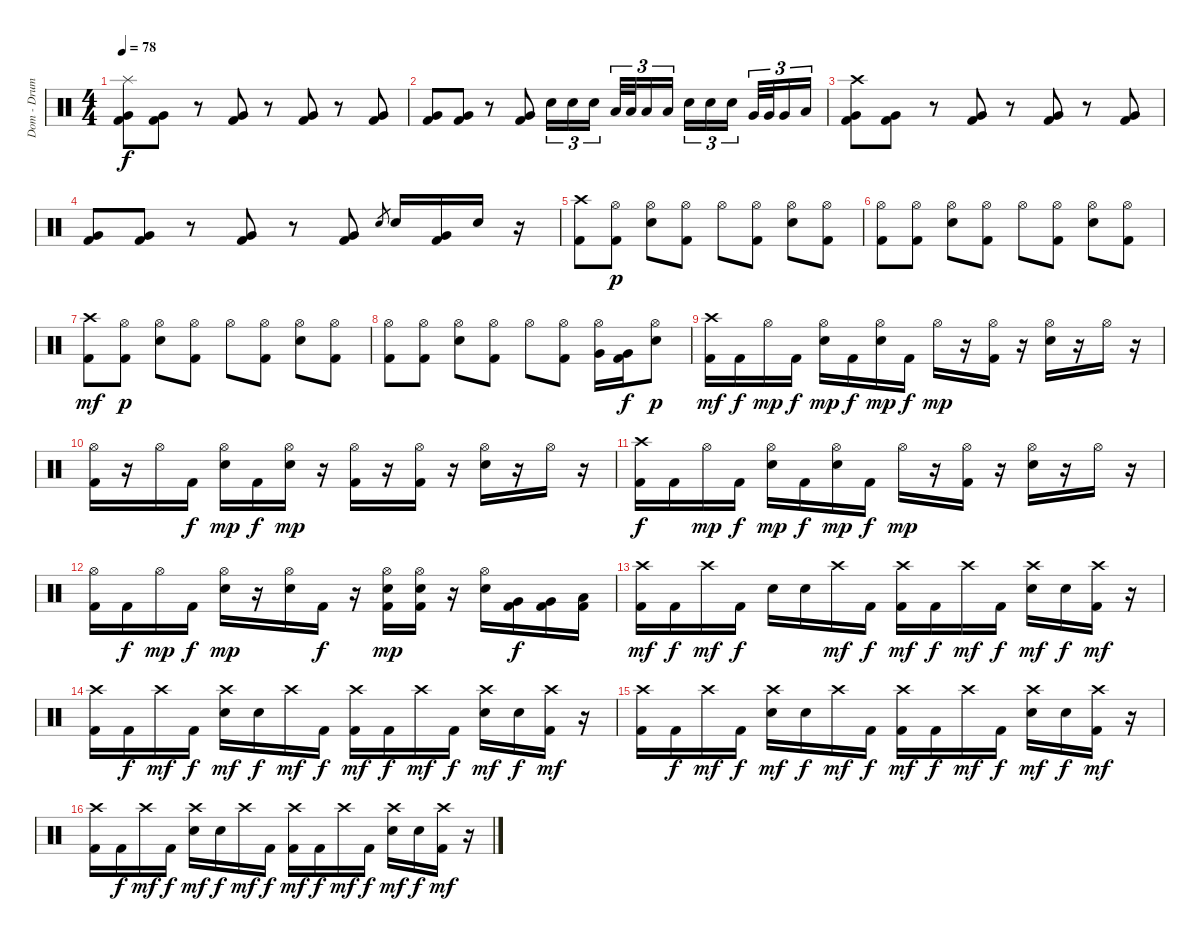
\track ("Dom - Drums" "Dom - Drum") {instrument percussion}
\staff {score}
\articulation defaults
\ts (4 4)
\tempo 78
\clef neutral
\ks c
("Splash (hit)" "Very Low Tom (hit)" "Kick (hit) 2").8{dy f} ("Very Low Tom (hit)" "Kick (hit) 2").8 r.8 ("Very Low Tom (hit)" "Kick (hit) 2").8 r.8 ("Very Low Tom (hit)" "Kick (hit) 2").8 r.8 ("Very Low Tom (hit)" "Kick (hit) 2").8 |
("Very Low Tom (hit)" "Kick (hit) 2").8 ("Very Low Tom (hit)" "Kick (hit) 2").8 r.8 ("Very Low Tom (hit)" "Kick (hit) 2").8 "Electric Snare (hit)".16{tu (3 2)} "Electric Snare (hit)".16{tu (3 2)} "Electric Snare (hit)".16{tu (3 2)} "Low Tom (hit)".32{tu (3 2)} "Low Tom (hit)".32{tu (3 2)} "Low Tom (hit)".16{tu (3 2)} "Low Tom (hit)".16{tu (3 2)} "Electric Snare (hit)".16{tu (3 2)} "Electric Snare (hit)".16{tu (3 2)} "Electric Snare (hit)".16{tu (3 2)} "Very Low Tom (hit)".32{tu (3 2)} "Very Low Tom (hit)".32{tu (3 2)} "Very Low Tom (hit)".16{tu (3 2)} "Low Floor Tom (hit)".16{tu (3 2)} |
("Crash high (hit)" "Very Low Tom (hit)" "Kick (hit) 2").8 ("Very Low Tom (hit)" "Kick (hit) 2").8 r.8 ("Very Low Tom (hit)" "Kick (hit) 2").8 r.8 ("Very Low Tom (hit)" "Kick (hit) 2").8 r.8 ("Very Low Tom (hit)" "Kick (hit) 2").8 |
("Very Low Tom (hit)" "Kick (hit) 2").8 ("Very Low Tom (hit)" "Kick (hit) 2").8 r.8 ("Very Low Tom (hit)" "Kick (hit) 2").8 r.8 ("Very Low Tom (hit)" "Kick (hit) 2").8 "Electric Snare (hit)".8{gr} "Electric Snare (hit)".16 ("Very Low Tom (hit)" "Kick (hit) 2").16 "Electric Snare (hit)".16 r.16 |
("Crash high (hit)" "Kick (hit) 2").8 ("Hi-Hat (open)" "Kick (hit) 2").8{dy p} ("Hi-Hat (open)" "Electric Snare (hit)").8 ("Hi-Hat (open)" "Kick (hit) 2").8 "Hi-Hat (open)".8 ("Hi-Hat (open)" "Kick (hit) 2").8 ("Hi-Hat (open)" "Electric Snare (hit)").8 ("Hi-Hat (open)" "Kick (hit) 2").8 |
("Hi-Hat (open)" "Kick (hit) 2").8 ("Hi-Hat (open)" "Kick (hit) 2").8 ("Hi-Hat (open)" "Electric Snare (hit)").8 ("Hi-Hat (open)" "Kick (hit) 2").8 "Hi-Hat (open)".8 ("Hi-Hat (open)" "Kick (hit) 2").8 ("Hi-Hat (open)" "Electric Snare (hit)").8 ("Hi-Hat (open)" "Kick (hit) 2").8 |
("Crash high (hit)" "Kick (hit) 2").8{dy mf} ("Hi-Hat (open)" "Kick (hit) 2").8{dy p} ("Hi-Hat (open)" "Electric Snare (hit)").8 ("Hi-Hat (open)" "Kick (hit) 2").8 "Hi-Hat (open)".8 ("Hi-Hat (open)" "Kick (hit) 2").8 ("Hi-Hat (open)" "Electric Snare (hit)").8 ("Hi-Hat (open)" "Kick (hit) 2").8 |
("Hi-Hat (open)" "Kick (hit) 2").8 ("Hi-Hat (open)" "Kick (hit) 2").8 ("Hi-Hat (open)" "Electric Snare (hit)").8 ("Hi-Hat (open)" "Kick (hit) 2").8 "Hi-Hat (open)".8 ("Hi-Hat (open)" "Kick (hit) 2").8 ("Hi-Hat (open)" "Very Low Tom (hit)").16 ("Very Low Tom (hit)" "Kick (hit) 2").16{dy f} ("Hi-Hat (open)" "Electric Snare (hit)").8{dy p} |
("Crash high (hit)" "Kick (hit) 2").16{dy mf} "Kick (hit) 2".16{dy f} "Hi-Hat (open)".16{dy mp} "Kick (hit) 2".16{dy f} ("Hi-Hat (open)" "Electric Snare (hit)").16{dy mp} "Kick (hit) 2".16{dy f} ("Hi-Hat (open)" "Electric Snare (hit)").16{dy mp} "Kick (hit) 2".16{dy f} "Hi-Hat (open)".16{dy mp} r.16 ("Hi-Hat (open)" "Kick (hit) 2").16 r.16 ("Hi-Hat (open)" "Electric Snare (hit)").16 r.16 "Hi-Hat (open)".16 r.16 |
("Hi-Hat (open)" "Kick (hit) 2").16 r.16 "Hi-Hat (open)".16 "Kick (hit) 2".16{dy f} ("Hi-Hat (open)" "Electric Snare (hit)").16{dy mp} "Kick (hit) 2".16{dy f} ("Hi-Hat (open)" "Electric Snare (hit)").16{dy mp} r.16 ("Hi-Hat (open)" "Kick (hit) 2").16 r.16 ("Hi-Hat (open)" "Kick (hit) 2").16 r.16 ("Hi-Hat (open)" "Electric Snare (hit)").16 r.16 "Hi-Hat (open)".16 r.16 |
("Crash high (hit)" "Kick (hit) 2").16{dy f} "Kick (hit) 2".16 "Hi-Hat (open)".16{dy mp} "Kick (hit) 2".16{dy f} ("Hi-Hat (open)" "Electric Snare (hit)").16{dy mp} "Kick (hit) 2".16{dy f} ("Hi-Hat (open)" "Electric Snare (hit)").16{dy mp} "Kick (hit) 2".16{dy f} "Hi-Hat (open)".16{dy mp} r.16 ("Hi-Hat (open)" "Kick (hit) 2").16 r.16 ("Hi-Hat (open)" "Electric Snare (hit)").16 r.16 "Hi-Hat (open)".16 r.16 |
("Hi-Hat (open)" "Kick (hit) 2").16 "Kick (hit) 2".16{dy f} "Hi-Hat (open)".16{dy mp} "Kick (hit) 2".16{dy f} ("Hi-Hat (open)" "Electric Snare (hit)").16{dy mp} r.16 ("Hi-Hat (open)" "Electric Snare (hit)").16 "Kick (hit) 2".16{dy f} r.16 ("Hi-Hat (open)" "Electric Snare (hit)" "Kick (hit) 2").16{dy mp} ("Hi-Hat (open)" "Electric Snare (hit)" "Kick (hit) 2").16 r.16 ("Hi-Hat (open)" "Electric Snare (hit)").16 ("Very Low Tom (hit)" "Kick (hit) 2").16{dy f} ("Very Low Tom (hit)" "Kick (hit) 2").16 ("Low Floor Tom (hit)" "Kick (hit) 2").16 |
("Crash high (hit)" "Kick (hit) 2").16{dy mf} "Kick (hit) 2".16{dy f} "Crash high (hit)".16{dy mf} "Kick (hit) 2".16{dy f} "Electric Snare (hit)".16 "Electric Snare (hit)".16 "Crash high (hit)".16{dy mf} "Kick (hit) 2".16{dy f} ("Crash high (hit)" "Kick (hit) 2").16{dy mf} "Kick (hit) 2".16{dy f} "Crash high (hit)".16{dy mf} "Kick (hit) 2".16{dy f} ("Crash high (hit)" "Electric Snare (hit)").16{dy mf} "Electric Snare (hit)".16{dy f} ("Crash high (hit)" "Kick (hit) 2").16{dy mf} r.16 |
("Crash high (hit)" "Kick (hit) 2").16 "Kick (hit) 2".16{dy f} "Crash high (hit)".16{dy mf} "Kick (hit) 2".16{dy f} ("Crash high (hit)" "Electric Snare (hit)").16{dy mf} "Electric Snare (hit)".16{dy f} "Crash high (hit)".16{dy mf} "Kick (hit) 2".16{dy f} ("Crash high (hit)" "Kick (hit) 2").16{dy mf} "Kick (hit) 2".16{dy f} "Crash high (hit)".16{dy mf} "Kick (hit) 2".16{dy f} ("Crash high (hit)" "Electric Snare (hit)").16{dy mf} "Electric Snare (hit)".16{dy f} ("Crash high (hit)" "Kick (hit) 2").16{dy mf} r.16 |
("Crash high (hit)" "Kick (hit) 2").16 "Kick (hit) 2".16{dy f} "Crash high (hit)".16{dy mf} "Kick (hit) 2".16{dy f} ("Crash high (hit)" "Electric Snare (hit)").16{dy mf} "Electric Snare (hit)".16{dy f} "Crash high (hit)".16{dy mf} "Kick (hit) 2".16{dy f} ("Crash high (hit)" "Kick (hit) 2").16{dy mf} "Kick (hit) 2".16{dy f} "Crash high (hit)".16{dy mf} "Kick (hit) 2".16{dy f} ("Crash high (hit)" "Electric Snare (hit)").16{dy mf} "Electric Snare (hit)".16{dy f} ("Crash high (hit)" "Kick (hit) 2").16{dy mf} r.16 |
("Crash high (hit)" "Kick (hit) 2").16 "Kick (hit) 2".16{dy f} "Crash high (hit)".16{dy mf} "Kick (hit) 2".16{dy f} ("Crash high (hit)" "Electric Snare (hit)").16{dy mf} "Electric Snare (hit)".16{dy f} "Crash high (hit)".16{dy mf} "Kick (hit) 2".16{dy f} ("Crash high (hit)" "Kick (hit) 2").16{dy mf} "Kick (hit) 2".16{dy f} "Crash high (hit)".16{dy mf} "Kick (hit) 2".16{dy f} ("Crash high (hit)" "Electric Snare (hit)").16{dy mf} "Electric Snare (hit)".16{dy f} ("Crash high (hit)" "Kick (hit) 2").16{dy mf} r.16
